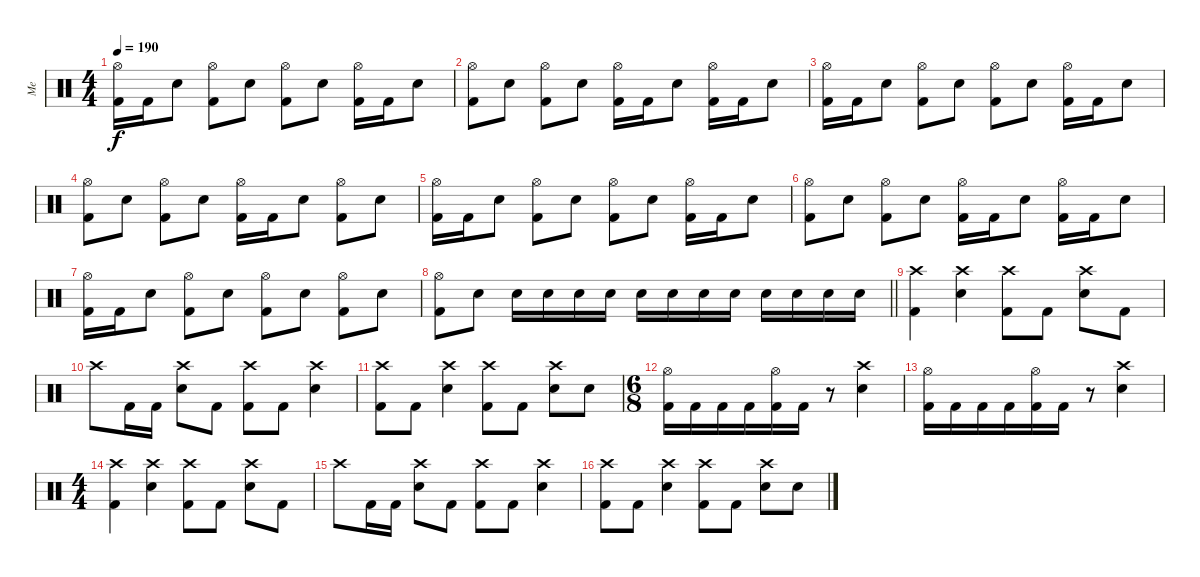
\track ("Me" "Me") {instrument percussion}
\staff {score}
\articulation defaults
\ts (4 4)
\tempo 190
\clef neutral
\ks c
("Hi-Hat (open)" "Kick (hit) 2").16{dy f} "Kick (hit) 2".16 "Snare (hit) 2".8 ("Hi-Hat (open)" "Kick (hit) 2").8 "Snare (hit) 2".8 ("Hi-Hat (open)" "Kick (hit) 2").8 "Snare (hit) 2".8 ("Hi-Hat (open)" "Kick (hit) 2").16 "Kick (hit) 2".16 "Snare (hit) 2".8 |
("Hi-Hat (open)" "Kick (hit) 2").8 "Snare (hit) 2".8 ("Hi-Hat (open)" "Kick (hit) 2").8 "Snare (hit) 2".8 ("Hi-Hat (open)" "Kick (hit) 2").16 "Kick (hit) 2".16 "Snare (hit) 2".8 ("Hi-Hat (open)" "Kick (hit) 2").16 "Kick (hit) 2".16 "Snare (hit) 2".8 |
("Hi-Hat (open)" "Kick (hit) 2").16 "Kick (hit) 2".16 "Snare (hit) 2".8 ("Hi-Hat (open)" "Kick (hit) 2").8 "Snare (hit) 2".8 ("Hi-Hat (open)" "Kick (hit) 2").8 "Snare (hit) 2".8 ("Hi-Hat (open)" "Kick (hit) 2").16 "Kick (hit) 2".16 "Snare (hit) 2".8 |
("Hi-Hat (open)" "Kick (hit) 2").8 "Snare (hit) 2".8 ("Hi-Hat (open)" "Kick (hit) 2").8 "Snare (hit) 2".8 ("Hi-Hat (open)" "Kick (hit) 2").16 "Kick (hit) 2".16 "Snare (hit) 2".8 ("Hi-Hat (open)" "Kick (hit) 2").8 "Snare (hit) 2".8 |
("Hi-Hat (open)" "Kick (hit) 2").16 "Kick (hit) 2".16 "Snare (hit) 2".8 ("Hi-Hat (open)" "Kick (hit) 2").8 "Snare (hit) 2".8 ("Hi-Hat (open)" "Kick (hit) 2").8 "Snare (hit) 2".8 ("Hi-Hat (open)" "Kick (hit) 2").16 "Kick (hit) 2".16 "Snare (hit) 2".8 |
("Hi-Hat (open)" "Kick (hit) 2").8 "Snare (hit) 2".8 ("Hi-Hat (open)" "Kick (hit) 2").8 "Snare (hit) 2".8 ("Hi-Hat (open)" "Kick (hit) 2").16 "Kick (hit) 2".16 "Snare (hit) 2".8 ("Hi-Hat (open)" "Kick (hit) 2").16 "Kick (hit) 2".16 "Snare (hit) 2".8 |
("Hi-Hat (open)" "Kick (hit) 2").16 "Kick (hit) 2".16 "Snare (hit) 2".8 ("Hi-Hat (open)" "Kick (hit) 2").8 "Snare (hit) 2".8 ("Hi-Hat (open)" "Kick (hit) 2").8 "Snare (hit) 2".8 ("Hi-Hat (open)" "Kick (hit) 2").8 "Snare (hit) 2".8 |
\barLineRight lightlight
("Hi-Hat (open)" "Kick (hit) 2").8 "Snare (hit) 2".8 "Snare (hit) 2".16 "Snare (hit) 2".16 "Snare (hit) 2".16 "Snare (hit) 2".16 "Snare (hit) 2".16 "Snare (hit) 2".16 "Snare (hit) 2".16 "Snare (hit) 2".16 "Snare (hit) 2".16 "Snare (hit) 2".16 "Snare (hit) 2".16 "Snare (hit) 2".16 |
("Crash high (hit)" "Kick (hit) 2").4 ("Crash high (hit)" "Snare (hit) 2").4 ("Crash high (hit)" "Kick (hit) 2").8 "Kick (hit) 2".8 ("Crash high (hit)" "Snare (hit) 2").8 "Kick (hit) 2".8 |
"Crash high (hit)".8 "Kick (hit) 2".16 "Kick (hit) 2".16 ("Crash high (hit)" "Snare (hit) 2").8 "Kick (hit) 2".8 ("Crash high (hit)" "Kick (hit) 2").8 "Kick (hit) 2".8 ("Crash high (hit)" "Snare (hit) 2").4 |
("Crash high (hit)" "Kick (hit) 2").8 "Kick (hit) 2".8 ("Crash high (hit)" "Snare (hit) 2").4 ("Crash high (hit)" "Kick (hit) 2").8 "Kick (hit) 2".8 ("Crash high (hit)" "Snare (hit) 2").8 "Snare (hit) 2".8 |
\ts (6 8)
("Hi-Hat (open)" "Kick (hit) 2").16 "Kick (hit) 2".16 "Kick (hit) 2".16 "Kick (hit) 2".16 ("Hi-Hat (open)" "Kick (hit) 2").16 "Kick (hit) 2".16 r.8 ("Crash high (hit)" "Snare (hit) 2").4 |
("Hi-Hat (open)" "Kick (hit) 2").16 "Kick (hit) 2".16 "Kick (hit) 2".16 "Kick (hit) 2".16 ("Hi-Hat (open)" "Kick (hit) 2").16 "Kick (hit) 2".16 r.8 ("Crash high (hit)" "Snare (hit) 2").4 |
\ts (4 4)
("Crash high (hit)" "Kick (hit) 2").4 ("Crash high (hit)" "Snare (hit) 2").4 ("Crash high (hit)" "Kick (hit) 2").8 "Kick (hit) 2".8 ("Crash high (hit)" "Snare (hit) 2").8 "Kick (hit) 2".8 |
"Crash high (hit)".8 "Kick (hit) 2".16 "Kick (hit) 2".16 ("Crash high (hit)" "Snare (hit) 2").8 "Kick (hit) 2".8{beam split} ("Crash high (hit)" "Kick (hit) 2").8 "Kick (hit) 2".8 ("Crash high (hit)" "Snare (hit) 2").4 |
("Crash high (hit)" "Kick (hit) 2").8 "Kick (hit) 2".8 ("Crash high (hit)" "Snare (hit) 2").4 ("Crash high (hit)" "Kick (hit) 2").8 "Kick (hit) 2".8 ("Crash high (hit)" "Snare (hit) 2").8 "Snare (hit) 2".8
